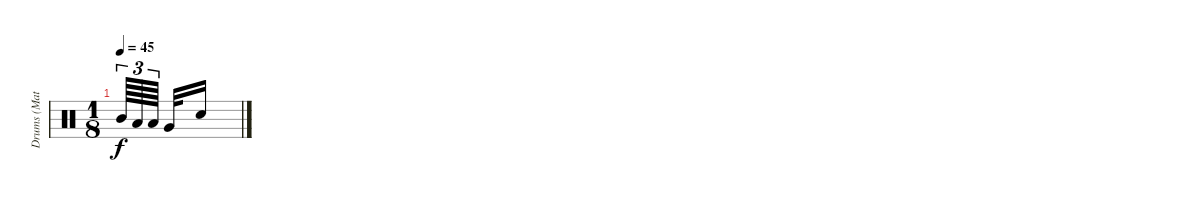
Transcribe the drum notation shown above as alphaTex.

\track ("Drums (Matt)" "Drums (Mat") {instrument percussion}
\staff {score}
\articulation defaults
\ts (1 8)
\tempo 45
\clef neutral
\ks c "Mid Tom (hit)".64{tu (3 2) dy f} "Low Tom (hit)".64{tu (3 2)} "Low Tom (hit)".64{tu (3 2)} "Very Low Tom (hit)".32 "Snare (hit)".16
